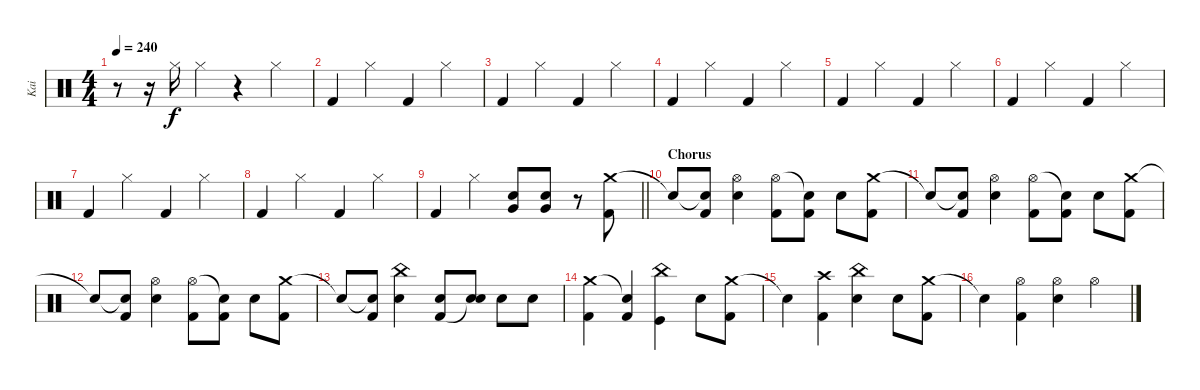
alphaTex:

\track ("Kai" "Kai") {instrument percussion}
\staff {score}
\articulation defaults
\ts (4 4)
\tempo 240
\clef neutral
\ks c
r.8{dy f} r.16 "Hi-Hat (closed)".16 "Hi-Hat (closed)".4 r.4 "Hi-Hat (closed)".4 |
"Kick (hit) 2".4 "Hi-Hat (closed)".4 "Kick (hit) 2".4 "Hi-Hat (closed)".4 |
"Kick (hit) 2".4 "Hi-Hat (closed)".4 "Kick (hit) 2".4 "Hi-Hat (closed)".4 |
"Kick (hit) 2".4 "Hi-Hat (closed)".4 "Kick (hit) 2".4 "Hi-Hat (closed)".4 |
"Kick (hit) 2".4 "Hi-Hat (closed)".4 "Kick (hit) 2".4 "Hi-Hat (closed)".4 |
"Kick (hit) 2".4 "Hi-Hat (closed)".4 "Kick (hit) 2".4 "Hi-Hat (closed)".4 |
"Kick (hit) 2".4 "Hi-Hat (closed)".4 "Kick (hit) 2".4 "Hi-Hat (closed)".4 |
"Kick (hit) 2".4 "Hi-Hat (closed)".4 "Kick (hit) 2".4 "Hi-Hat (closed)".4 |
\barLineRight lightlight "Kick (hit) 2".4 "Hi-Hat (closed)".4
("Snare (hit) 2" "Very Low Tom (hit)").8 ("Snare (hit) 2" "Very Low Tom (hit)").8 r.8 ("Crash medium (hit)" "Kick (hit) 2").8 |
\section ("" "Chorus")
"Snare (hit)"{t}.8 ("Snare (hit)"{t} "Kick (hit) 2").8 ("Hi-Hat (open)" "Snare (hit) 2").4 ("Hi-Hat (open)" "Kick (hit) 2").8 ("Snare (hit)"{t} "Kick (hit) 2").8 "Snare (hit) 2".8 ("Crash medium (hit)" "Kick (hit) 2").8 |
"Snare (hit)"{t}.8 ("Snare (hit)"{t} "Kick (hit) 2").8 ("Hi-Hat (open)" "Snare (hit) 2").4 ("Hi-Hat (open)" "Kick (hit) 2").8 ("Snare (hit)"{t} "Kick (hit) 2").8 "Snare (hit) 2".8 ("Crash medium (hit)" "Kick (hit) 2").8 |
"Snare (hit)"{t}.8 ("Snare (hit)"{t} "Kick (hit) 2").8 ("Hi-Hat (open)" "Snare (hit) 2").4 ("Hi-Hat (open)" "Kick (hit) 2").8 ("Snare (hit)"{t} "Kick (hit) 2").8 "Snare (hit) 2".8 ("Crash medium (hit)" "Kick (hit) 2").8 |
"Snare (hit)"{t}.8 ("Snare (hit)"{t} "Kick (hit) 2").8 ("China (hit)" "Snare (hit) 2").4 ("Snare (hit) 2" "Kick (hit) 2").8 ("Snare (hit) 2" "Snare (hit)"{t}).8 "Snare (hit) 2".8 "Snare (hit) 2".8 |
("Crash medium (hit)" "Kick (hit) 2").4 ("Snare (hit)"{t} "Kick (hit) 2").4 ("China (hit)" "Kick (hit)").4 "Snare (hit) 2".8 ("Crash medium (hit)" "Kick (hit) 2").8 |
"Snare (hit)"{t}.4 ("Crash high (hit)" "Kick (hit) 2").4 ("China (hit)" "Snare (hit) 2").4 "Snare (hit) 2".8 ("Crash medium (hit)" "Kick (hit) 2").8 |
"Snare (hit)"{t}.4 ("Hi-Hat (open)" "Kick (hit) 2").4 ("Hi-Hat (open)" "Snare (hit) 2").4 "Hi-Hat (open)".4
